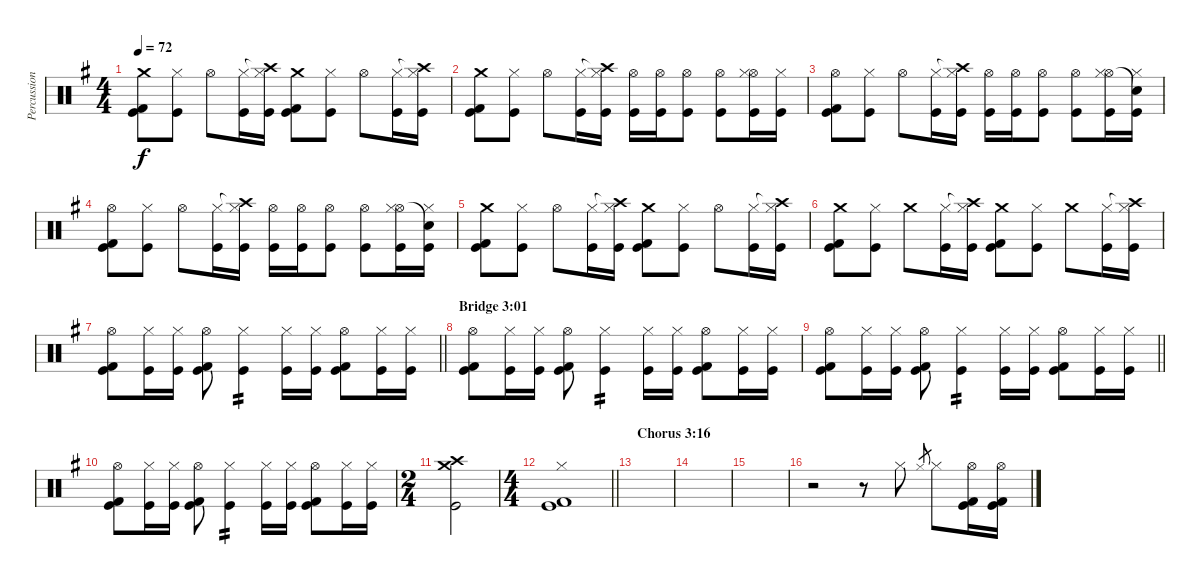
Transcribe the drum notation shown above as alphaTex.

\track ("Percussion" "Percussion") {instrument percussion}
\staff {score}
\articulation defaults
\ts (4 4)
\tempo 72
\clef neutral
\ks g
("Crash medium (hit)" "Kick (hit) 2" "Kick (hit)").8{dy f} ("Hi-Hat (closed)" "Kick (hit)").8 "Hi-Hat (open)".8 ("Hi-Hat (closed)" "Kick (hit)").16 ("Crash high (hit)"{t} "Hi-Hat (closed)" "Kick (hit)").16 ("Crash medium (hit)" "Kick (hit) 2" "Kick (hit)").8 ("Hi-Hat (closed)" "Kick (hit)").8 "Hi-Hat (open)".8 ("Hi-Hat (closed)" "Kick (hit)").16 ("Crash high (hit)"{t} "Hi-Hat (closed)" "Kick (hit)").16 |
("Crash medium (hit)" "Kick (hit) 2" "Kick (hit)").8 ("Hi-Hat (closed)" "Kick (hit)").8 "Hi-Hat (open)".8 ("Hi-Hat (closed)" "Kick (hit)").16 ("Crash high (hit)"{t} "Hi-Hat (closed)" "Kick (hit)").16 ("Hi-Hat (open)" "Kick (hit)").16 ("Hi-Hat (open)" "Kick (hit)").16 ("Hi-Hat (open)" "Kick (hit)").8 ("Hi-Hat (open)" "Kick (hit)").8 ("Hi-Hat (open)" "Hi-Hat (closed)" "Kick (hit)").16 ("Hi-Hat (closed)" "Kick (hit)").16 |
("Hi-Hat (open)" "Kick (hit) 2" "Kick (hit)").8 ("Hi-Hat (closed)" "Kick (hit)").8 "Hi-Hat (open)".8 ("Hi-Hat (closed)" "Kick (hit)").16 ("Crash high (hit)"{t} "Hi-Hat (closed)" "Kick (hit)").16 ("Hi-Hat (open)" "Kick (hit)").16 ("Hi-Hat (open)" "Kick (hit)").16 ("Hi-Hat (open)" "Kick (hit)").8 ("Hi-Hat (open)" "Kick (hit)").8 ("Hi-Hat (open)" "Hi-Hat (closed)" "Kick (hit)").16 ("Snare (hit)"{t} "Hi-Hat (closed)" "Kick (hit)").16 |
("Hi-Hat (open)" "Kick (hit) 2" "Kick (hit)").8 ("Hi-Hat (closed)" "Kick (hit)").8 "Hi-Hat (open)".8 ("Hi-Hat (closed)" "Kick (hit)").16 ("Crash high (hit)"{t} "Hi-Hat (closed)" "Kick (hit)").16 ("Hi-Hat (open)" "Kick (hit)").16 ("Hi-Hat (open)" "Kick (hit)").16 ("Hi-Hat (open)" "Kick (hit)").8 ("Hi-Hat (open)" "Kick (hit)").8 ("Hi-Hat (open)" "Hi-Hat (closed)" "Kick (hit)").16 ("Snare (hit)"{t} "Hi-Hat (closed)" "Kick (hit)").16 |
("Crash medium (hit)" "Kick (hit) 2" "Kick (hit)").8 ("Hi-Hat (closed)" "Kick (hit)").8 "Hi-Hat (open)".8 ("Hi-Hat (closed)" "Kick (hit)").16 ("Crash high (hit)"{t} "Hi-Hat (closed)" "Kick (hit)").16 ("Crash medium (hit)" "Kick (hit) 2" "Kick (hit)").8 ("Hi-Hat (closed)" "Kick (hit)").8 "Hi-Hat (open)".8 ("Hi-Hat (closed)" "Kick (hit)").16 ("Crash high (hit)"{t} "Hi-Hat (closed)" "Kick (hit)").16 |
("Crash medium (hit)" "Kick (hit) 2" "Kick (hit)").8 ("Hi-Hat (closed)" "Kick (hit)").8 "Crash medium (hit)".8 ("Hi-Hat (closed)" "Kick (hit)").16 ("Crash high (hit)"{t} "Hi-Hat (closed)" "Kick (hit)").16 ("Crash medium (hit)" "Kick (hit) 2" "Kick (hit)").8 ("Hi-Hat (closed)" "Kick (hit)").8 "Crash medium (hit)".8 ("Hi-Hat (closed)" "Kick (hit)").16 ("Crash high (hit)"{t} "Hi-Hat (closed)" "Kick (hit)").16 |
\barLineRight lightlight
("Hi-Hat (open)" "Kick (hit) 2" "Kick (hit)").8 ("Hi-Hat (closed)" "Kick (hit)").16 ("Hi-Hat (closed)" "Kick (hit)").16 ("Hi-Hat (open)" "Kick (hit) 2" "Kick (hit)").8 ("Hi-Hat (closed)" "Kick (hit)").4{tp 2} ("Hi-Hat (closed)" "Kick (hit)").16 ("Hi-Hat (closed)" "Kick (hit)").16 ("Hi-Hat (open)" "Kick (hit) 2" "Kick (hit)").8 ("Hi-Hat (closed)" "Kick (hit)").16 ("Hi-Hat (closed)" "Kick (hit)").16 |
\section ("" "Bridge 3:01")
("Hi-Hat (open)" "Kick (hit) 2" "Kick (hit)").8 ("Hi-Hat (closed)" "Kick (hit)").16 ("Hi-Hat (closed)" "Kick (hit)").16 ("Hi-Hat (open)" "Kick (hit) 2" "Kick (hit)").8 ("Hi-Hat (closed)" "Kick (hit)").4{tp 2} ("Hi-Hat (closed)" "Kick (hit)").16 ("Hi-Hat (closed)" "Kick (hit)").16 ("Hi-Hat (open)" "Kick (hit) 2" "Kick (hit)").8 ("Hi-Hat (closed)" "Kick (hit)").16 ("Hi-Hat (closed)" "Kick (hit)").16 |
\barLineRight lightlight
("Hi-Hat (open)" "Kick (hit) 2" "Kick (hit)").8 ("Hi-Hat (closed)" "Kick (hit)").16 ("Hi-Hat (closed)" "Kick (hit)").16 ("Hi-Hat (open)" "Kick (hit) 2" "Kick (hit)").8 ("Hi-Hat (closed)" "Kick (hit)").4{tp 2} ("Hi-Hat (closed)" "Kick (hit)").16 ("Hi-Hat (closed)" "Kick (hit)").16 ("Hi-Hat (open)" "Kick (hit) 2" "Kick (hit)").8 ("Hi-Hat (closed)" "Kick (hit)").16 ("Hi-Hat (closed)" "Kick (hit)").16 |
("Hi-Hat (open)" "Kick (hit) 2" "Kick (hit)").8 ("Hi-Hat (closed)" "Kick (hit)").16 ("Hi-Hat (closed)" "Kick (hit)").16 ("Hi-Hat (open)" "Kick (hit) 2" "Kick (hit)").8 ("Hi-Hat (closed)" "Kick (hit)").4{tp 2} ("Hi-Hat (closed)" "Kick (hit)").16 ("Hi-Hat (closed)" "Kick (hit)").16 ("Hi-Hat (open)" "Kick (hit) 2" "Kick (hit)").8 ("Hi-Hat (closed)" "Kick (hit)").16 ("Hi-Hat (closed)" "Kick (hit)").16 |
\ts (2 4)
("Crash medium (hit)" "Crash high (hit)" "Kick (hit)").2 |
\ts (4 4)
\barLineRight lightlight
("Hi-Hat (closed)" "Kick (hit) 2" "Kick (hit)").1 |
\section ("" "Chorus 3:16")
|
|
|
r.2 r.8 "Hi-Hat (closed)".8 "Hi-Hat (closed)".8{gr} "Hi-Hat (closed)".8 ("Hi-Hat (open)" "Kick (hit) 2" "Kick (hit)").16 ("Hi-Hat (open)" "Kick (hit) 2" "Kick (hit)").16
